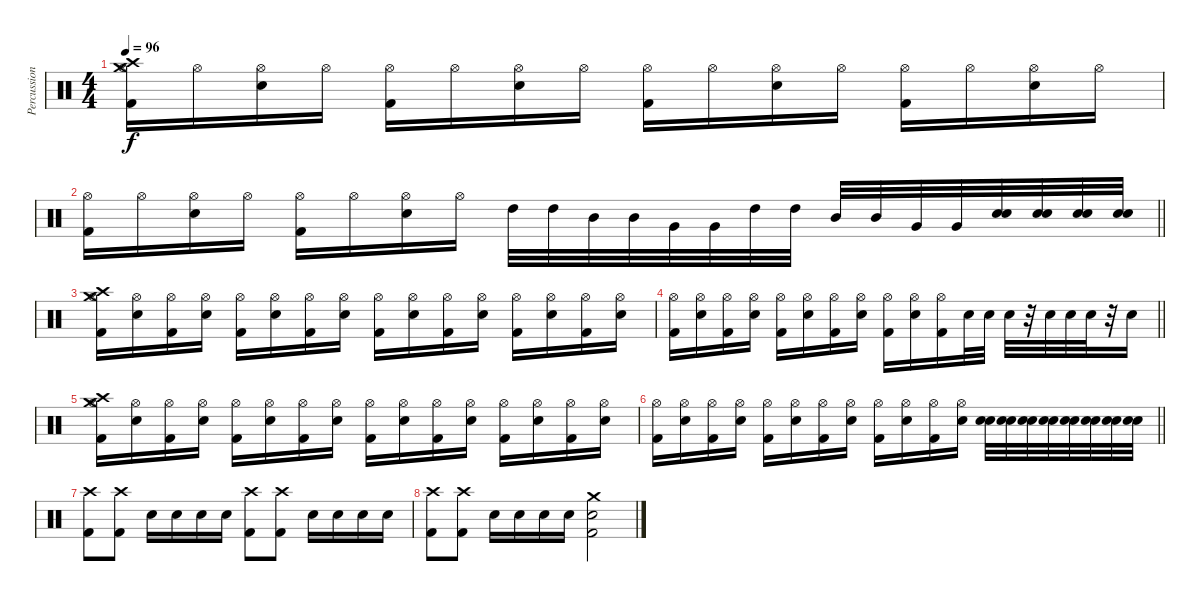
\track ("Percussion" "Percussion") {instrument percussion}
\staff {score}
\articulation defaults
\ts (4 4)
\tempo 96
\clef neutral
\ks c
("Crash medium (hit)" "Crash high (hit)" "Hi-Hat (open)" "Kick (hit) 2").16{dy f} "Hi-Hat (open)".16 ("Hi-Hat (open)" "Electric Snare (hit)").16 "Hi-Hat (open)".16 ("Hi-Hat (open)" "Kick (hit) 2").16 "Hi-Hat (open)".16 ("Hi-Hat (open)" "Electric Snare (hit)").16 "Hi-Hat (open)".16 ("Hi-Hat (open)" "Kick (hit) 2").16 "Hi-Hat (open)".16 ("Hi-Hat (open)" "Electric Snare (hit)").16 "Hi-Hat (open)".16 ("Hi-Hat (open)" "Kick (hit) 2").16 "Hi-Hat (open)".16 ("Hi-Hat (open)" "Electric Snare (hit)").16 "Hi-Hat (open)".16 |
\barLineRight lightlight
("Hi-Hat (open)" "Kick (hit) 2").16 "Hi-Hat (open)".16 ("Hi-Hat (open)" "Electric Snare (hit)").16 "Hi-Hat (open)".16 ("Hi-Hat (open)" "Kick (hit) 2").16 "Hi-Hat (open)".16 ("Hi-Hat (open)" "Electric Snare (hit)").16 "Hi-Hat (open)".16 "High Tom (hit)".32 "High Tom (hit)".32 "Mid Tom (hit)".32 "Mid Tom (hit)".32 "Very Low Tom (hit)".32 "Very Low Tom (hit)".32 "High Tom (hit)".32 "High Tom (hit)".32 "Mid Tom (hit)".32 "Mid Tom (hit)".32 "Very Low Tom (hit)".32 "Very Low Tom (hit)".32 ("Electric Snare (hit)" "Electric Snare (hit)").32 ("Electric Snare (hit)" "Electric Snare (hit)").32 ("Electric Snare (hit)" "Electric Snare (hit)").32 ("Electric Snare (hit)" "Electric Snare (hit)").32 |
("Crash medium (hit)" "Crash high (hit)" "Hi-Hat (open)" "Kick (hit) 2").16 ("Hi-Hat (open)" "Electric Snare (hit)").16 ("Hi-Hat (open)" "Kick (hit) 2").16 ("Hi-Hat (open)" "Electric Snare (hit)").16 ("Hi-Hat (open)" "Kick (hit) 2").16 ("Hi-Hat (open)" "Electric Snare (hit)").16 ("Hi-Hat (open)" "Kick (hit) 2").16 ("Hi-Hat (open)" "Electric Snare (hit)").16 ("Hi-Hat (open)" "Kick (hit) 2").16 ("Hi-Hat (open)" "Electric Snare (hit)").16 ("Hi-Hat (open)" "Kick (hit) 2").16 ("Hi-Hat (open)" "Electric Snare (hit)").16 ("Hi-Hat (open)" "Kick (hit) 2").16 ("Hi-Hat (open)" "Electric Snare (hit)").16 ("Hi-Hat (open)" "Kick (hit) 2").16 ("Hi-Hat (open)" "Electric Snare (hit)").16 |
\barLineRight lightlight
("Hi-Hat (open)" "Kick (hit) 2").16 ("Hi-Hat (open)" "Electric Snare (hit)").16 ("Hi-Hat (open)" "Kick (hit) 2").16 ("Hi-Hat (open)" "Electric Snare (hit)").16 ("Hi-Hat (open)" "Kick (hit) 2").16 ("Hi-Hat (open)" "Electric Snare (hit)").16 ("Hi-Hat (open)" "Kick (hit) 2").16 ("Hi-Hat (open)" "Electric Snare (hit)").16 ("Hi-Hat (open)" "Kick (hit) 2").16 ("Hi-Hat (open)" "Electric Snare (hit)").16 ("Hi-Hat (open)" "Kick (hit) 2").16 "Electric Snare (hit)".32 "Electric Snare (hit)".32 "Electric Snare (hit)".32 r.32 "Electric Snare (hit)".32 "Electric Snare (hit)".32 "Electric Snare (hit)".32 r.32 "Electric Snare (hit)".16 |
("Crash medium (hit)" "Crash high (hit)" "Hi-Hat (open)" "Kick (hit) 2").16 ("Hi-Hat (open)" "Electric Snare (hit)").16 ("Hi-Hat (open)" "Kick (hit) 2").16 ("Hi-Hat (open)" "Electric Snare (hit)").16 ("Hi-Hat (open)" "Kick (hit) 2").16 ("Hi-Hat (open)" "Electric Snare (hit)").16 ("Hi-Hat (open)" "Kick (hit) 2").16 ("Hi-Hat (open)" "Electric Snare (hit)").16 ("Hi-Hat (open)" "Kick (hit) 2").16 ("Hi-Hat (open)" "Electric Snare (hit)").16 ("Hi-Hat (open)" "Kick (hit) 2").16 ("Hi-Hat (open)" "Electric Snare (hit)").16 ("Hi-Hat (open)" "Kick (hit) 2").16 ("Hi-Hat (open)" "Electric Snare (hit)").16 ("Hi-Hat (open)" "Kick (hit) 2").16 ("Hi-Hat (open)" "Electric Snare (hit)").16 |
\barLineRight lightlight
("Hi-Hat (open)" "Kick (hit) 2").16 ("Hi-Hat (open)" "Electric Snare (hit)").16 ("Hi-Hat (open)" "Kick (hit) 2").16 ("Hi-Hat (open)" "Electric Snare (hit)").16 ("Hi-Hat (open)" "Kick (hit) 2").16 ("Hi-Hat (open)" "Electric Snare (hit)").16 ("Hi-Hat (open)" "Kick (hit) 2").16 ("Hi-Hat (open)" "Electric Snare (hit)").16 ("Hi-Hat (open)" "Kick (hit) 2").16 ("Hi-Hat (open)" "Electric Snare (hit)").16 ("Hi-Hat (open)" "Kick (hit) 2").16 ("Hi-Hat (open)" "Electric Snare (hit)").16 ("Electric Snare (hit)" "Electric Snare (hit)").32 ("Electric Snare (hit)" "Electric Snare (hit)").32 ("Electric Snare (hit)" "Electric Snare (hit)").32 ("Electric Snare (hit)" "Electric Snare (hit)").32 ("Electric Snare (hit)" "Electric Snare (hit)").32 ("Electric Snare (hit)" "Electric Snare (hit)").32 ("Electric Snare (hit)" "Electric Snare (hit)").32 ("Electric Snare (hit)" "Electric Snare (hit)").32 |
("Crash high (hit)" "Kick (hit) 2").8 ("Crash high (hit)" "Kick (hit) 2").8 "Electric Snare (hit)".16 "Electric Snare (hit)".16 "Electric Snare (hit)".16 "Electric Snare (hit)".16 ("Crash high (hit)" "Kick (hit) 2").8 ("Crash high (hit)" "Kick (hit) 2").8 "Electric Snare (hit)".16 "Electric Snare (hit)".16 "Electric Snare (hit)".16 "Electric Snare (hit)".16 |
("Crash high (hit)" "Kick (hit) 2").8 ("Crash high (hit)" "Kick (hit) 2").8 "Electric Snare (hit)".16 "Electric Snare (hit)".16 "Electric Snare (hit)".16 "Electric Snare (hit)".16 ("Crash medium (hit)" "Electric Snare (hit)" "Kick (hit) 2").2
